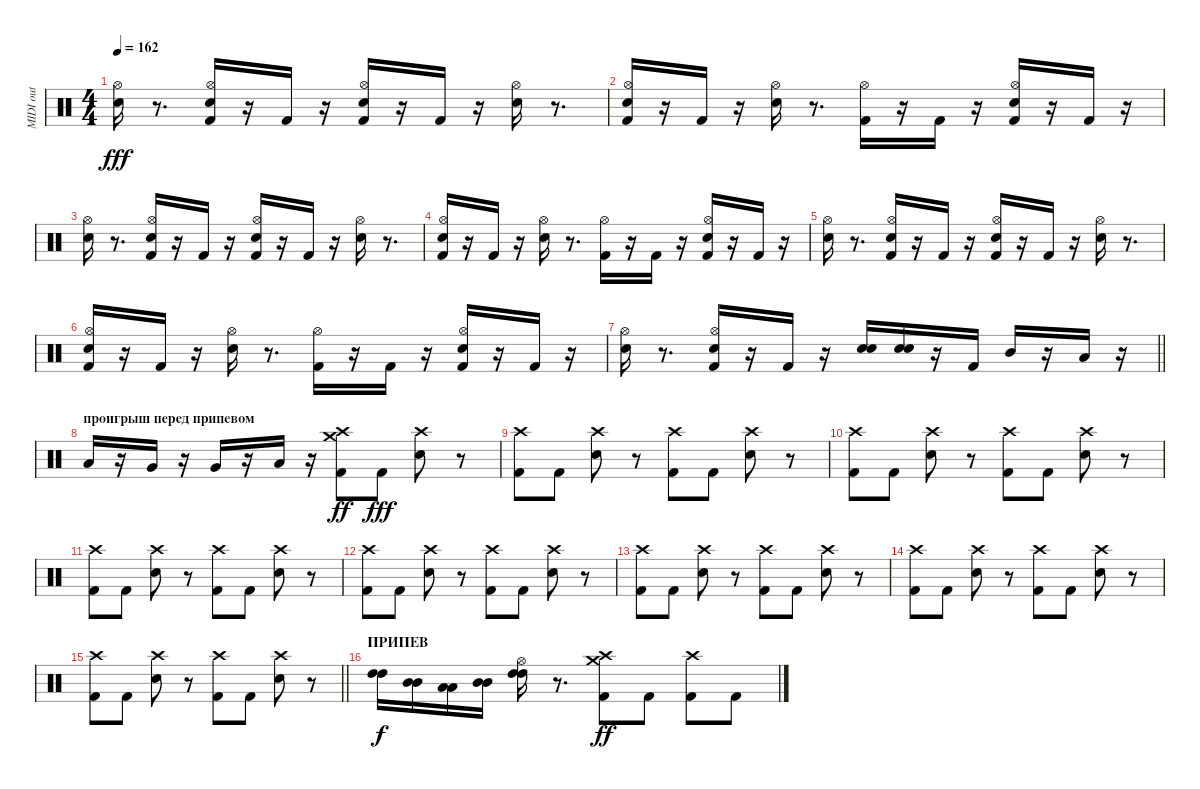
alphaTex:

\track ("MIDI out" "MIDI out") {instrument percussion}
\staff {score}
\articulation defaults
\ts (4 4)
\tempo 162
\clef neutral
\ks c
("Electric Snare (hit)" "Hi-Hat (open)").16{dy fff} r.8{d} ("Electric Snare (hit)" "Kick (hit) 2" "Hi-Hat (open)").16 r.16 "Kick (hit) 2".16 r.16 ("Electric Snare (hit)" "Kick (hit) 2" "Hi-Hat (open)").16 r.16 "Kick (hit) 2".16 r.16 ("Electric Snare (hit)" "Hi-Hat (open)").16 r.8{d} |
("Electric Snare (hit)" "Kick (hit) 2" "Hi-Hat (open)").16 r.16 "Kick (hit) 2".16 r.16 ("Electric Snare (hit)" "Hi-Hat (open)").16 r.8{d} ("Kick (hit) 2" "Hi-Hat (open)").16 r.16 "Kick (hit) 2".16 r.16 ("Electric Snare (hit)" "Kick (hit) 2" "Hi-Hat (open)").16 r.16 "Kick (hit) 2".16 r.16 |
("Electric Snare (hit)" "Hi-Hat (open)").16 r.8{d} ("Electric Snare (hit)" "Kick (hit) 2" "Hi-Hat (open)").16 r.16 "Kick (hit) 2".16 r.16 ("Electric Snare (hit)" "Kick (hit) 2" "Hi-Hat (open)").16 r.16 "Kick (hit) 2".16 r.16 ("Electric Snare (hit)" "Hi-Hat (open)").16 r.8{d} |
("Electric Snare (hit)" "Kick (hit) 2" "Hi-Hat (open)").16 r.16 "Kick (hit) 2".16 r.16 ("Electric Snare (hit)" "Hi-Hat (open)").16 r.8{d} ("Kick (hit) 2" "Hi-Hat (open)").16 r.16 "Kick (hit) 2".16 r.16 ("Electric Snare (hit)" "Kick (hit) 2" "Hi-Hat (open)").16 r.16 "Kick (hit) 2".16 r.16 |
("Electric Snare (hit)" "Hi-Hat (open)").16 r.8{d} ("Electric Snare (hit)" "Kick (hit) 2" "Hi-Hat (open)").16 r.16 "Kick (hit) 2".16 r.16 ("Electric Snare (hit)" "Kick (hit) 2" "Hi-Hat (open)").16 r.16 "Kick (hit) 2".16 r.16 ("Electric Snare (hit)" "Hi-Hat (open)").16 r.8{d} |
("Electric Snare (hit)" "Kick (hit) 2" "Hi-Hat (open)").16 r.16 "Kick (hit) 2".16 r.16 ("Electric Snare (hit)" "Hi-Hat (open)").16 r.8{d} ("Kick (hit) 2" "Hi-Hat (open)").16 r.16 "Kick (hit) 2".16 r.16 ("Electric Snare (hit)" "Kick (hit) 2" "Hi-Hat (open)").16 r.16 "Kick (hit) 2".16 r.16 |
\barLineRight lightlight
("Electric Snare (hit)" "Hi-Hat (open)").16 r.8{d} ("Electric Snare (hit)" "Kick (hit) 2" "Hi-Hat (open)").16 r.16 "Kick (hit) 2".16 r.16 ("Snare (hit) 2" "Electric Snare (hit)").16 ("Snare (hit) 2" "Electric Snare (hit)").16 r.16 "Kick (hit) 2".16 "Mid Tom (hit)".16 r.16 "Low Tom (hit)".16 r.16 |
\section ("" "проигрыш перед припевом")
"Low Tom (hit)".16 r.16 "Very Low Tom (hit)".16 r.16 "Very Low Tom (hit)".16 r.16 "Low Floor Tom (hit)".16 r.16 ("Kick (hit) 2" "Crash high (hit)" "Crash medium (hit)").8{dy ff} "Kick (hit) 2".8{dy fff} ("Crash high (hit)" "Snare (hit) 2").8 r.8 |
("Crash high (hit)" "Kick (hit) 2").8 "Kick (hit) 2".8 ("Crash high (hit)" "Snare (hit) 2").8 r.8 ("Crash high (hit)" "Kick (hit) 2").8 "Kick (hit) 2".8 ("Crash high (hit)" "Snare (hit) 2").8 r.8 |
("Crash high (hit)" "Kick (hit) 2").8 "Kick (hit) 2".8 ("Crash high (hit)" "Snare (hit) 2").8 r.8 ("Kick (hit) 2" "Crash high (hit)").8 "Kick (hit) 2".8 ("Crash high (hit)" "Snare (hit) 2").8 r.8 |
("Crash high (hit)" "Kick (hit) 2").8 "Kick (hit) 2".8 ("Crash high (hit)" "Snare (hit) 2").8 r.8 ("Crash high (hit)" "Kick (hit) 2").8 "Kick (hit) 2".8 ("Crash high (hit)" "Snare (hit) 2").8 r.8 |
("Crash high (hit)" "Kick (hit) 2").8 "Kick (hit) 2".8 ("Crash high (hit)" "Snare (hit) 2").8 r.8 ("Kick (hit) 2" "Crash high (hit)").8 "Kick (hit) 2".8 ("Crash high (hit)" "Snare (hit) 2").8 r.8 |
("Crash high (hit)" "Kick (hit) 2").8 "Kick (hit) 2".8 ("Crash high (hit)" "Snare (hit) 2").8 r.8 ("Crash high (hit)" "Kick (hit) 2").8 "Kick (hit) 2".8 ("Crash high (hit)" "Snare (hit) 2").8 r.8 |
("Crash high (hit)" "Kick (hit) 2").8 "Kick (hit) 2".8 ("Crash high (hit)" "Snare (hit) 2").8 r.8 ("Crash high (hit)" "Kick (hit) 2").8 "Kick (hit) 2".8 ("Crash high (hit)" "Snare (hit) 2").8 r.8 |
\barLineRight lightlight
("Crash high (hit)" "Kick (hit) 2").8 "Kick (hit) 2".8 ("Crash high (hit)" "Snare (hit) 2").8 r.8 ("Crash high (hit)" "Kick (hit) 2").8 "Kick (hit) 2".8 ("Crash high (hit)" "Snare (hit) 2").8 r.8 |
\section ("" "ПРИПЕВ")
("High Tom (hit)" "High Tom (hit)").16{dy f} ("Mid Tom (hit)" "Mid Tom (hit)").16 ("Low Tom (hit)" "Low Tom (hit)").16 ("Mid Tom (hit)" "Mid Tom (hit)").16 ("Hi-Hat (open)" "High Tom (hit)" "High Tom (hit)").16 r.8{d} ("Crash medium (hit)" "Crash high (hit)" "Kick (hit) 2").8{dy ff} "Kick (hit) 2".8 ("Kick (hit) 2" "Crash high (hit)").8 "Kick (hit) 2".8
